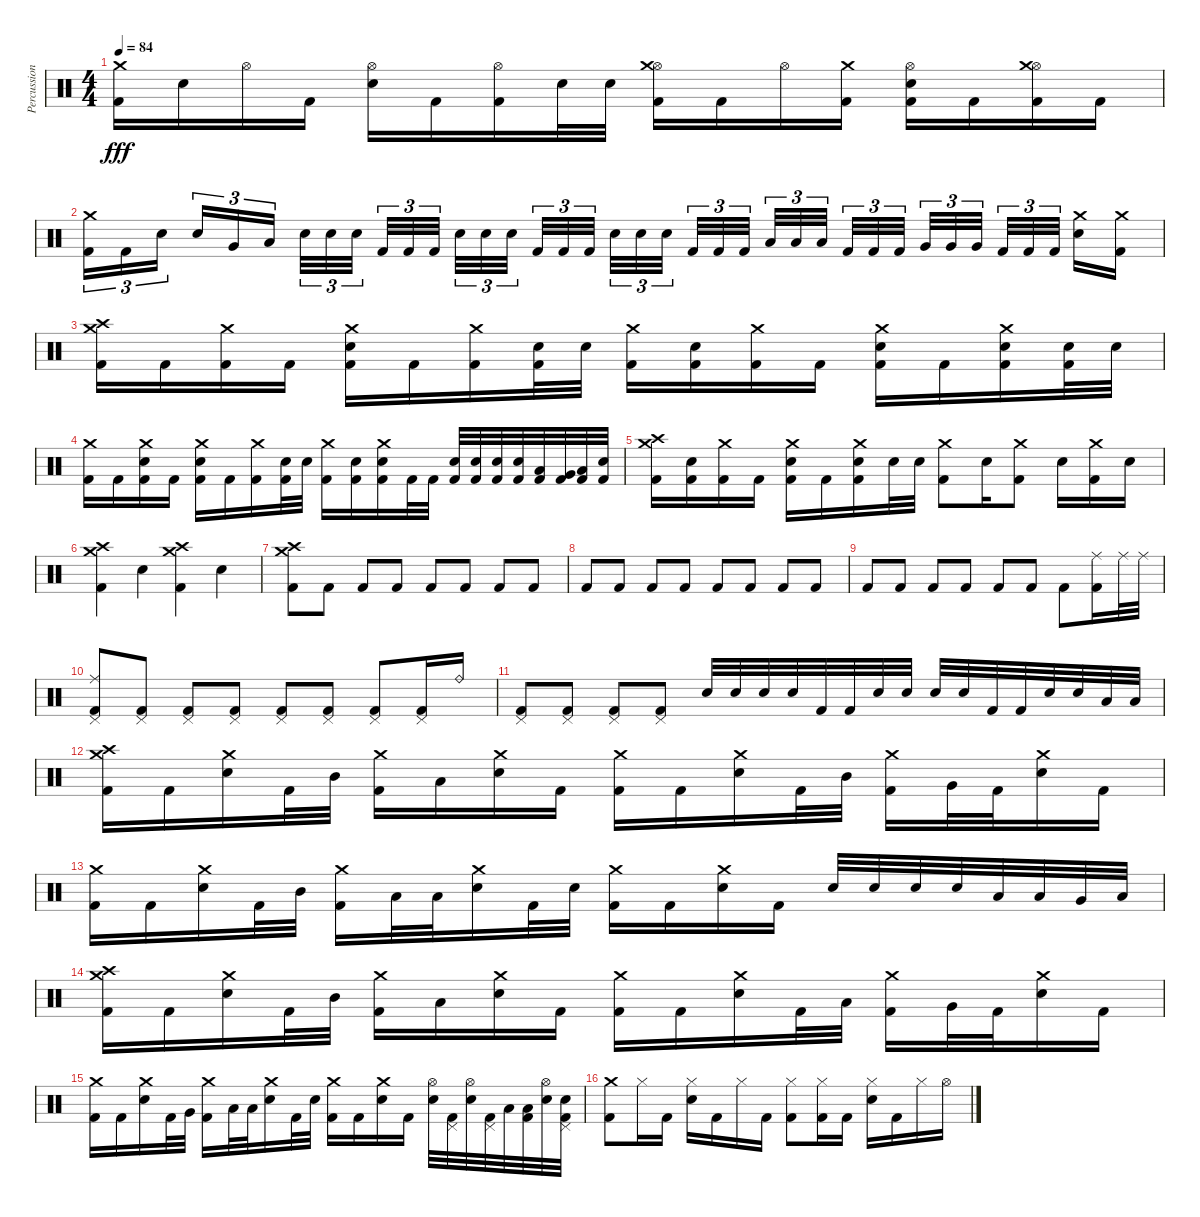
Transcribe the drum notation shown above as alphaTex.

\track ("Percussion" "Percussion") {instrument percussion}
\staff {score}
\articulation defaults
\ts (4 4)
\tempo 84
\clef neutral
\ks c
("Crash medium (hit)" "Kick (hit) 2").16{dy fff} "Electric Snare (hit)".16 "Hi-Hat (open)".16 "Kick (hit) 2".16 ("Hi-Hat (open)" "Electric Snare (hit)").16 "Kick (hit) 2".16 ("Hi-Hat (open)" "Kick (hit) 2").16 "Electric Snare (hit)".32 "Electric Snare (hit)".32 ("Hi-Hat (open)" "Crash medium (hit)" "Kick (hit) 2").16 "Kick (hit) 2".16 "Hi-Hat (open)".16 ("Crash medium (hit)" "Kick (hit) 2").16 ("Hi-Hat (open)" "Electric Snare (hit)" "Kick (hit) 2").16 "Kick (hit) 2".16 ("Hi-Hat (open)" "Crash medium (hit)" "Kick (hit) 2").16 "Kick (hit) 2".16 |
("Crash medium (hit)" "Kick (hit) 2").16{tu (3 2)} "Kick (hit) 2".16{tu (3 2)} "Electric Snare (hit)".16{tu (3 2) beam splitsecondary} "Electric Snare (hit)".16{tu (3 2)} "Very Low Tom (hit)".16{tu (3 2)} "Low Floor Tom (hit)".16{tu (3 2)} "Electric Snare (hit)".32{tu (3 2)} "Electric Snare (hit)".32{tu (3 2)} "Electric Snare (hit)".32{tu (3 2) beam splitsecondary} "Kick (hit) 2".32{tu (3 2)} "Kick (hit) 2".32{tu (3 2)} "Kick (hit) 2".32{tu (3 2) beam splitsecondary} "Electric Snare (hit)".32{tu (3 2)} "Electric Snare (hit)".32{tu (3 2)} "Electric Snare (hit)".32{tu (3 2) beam splitsecondary} "Kick (hit) 2".32{tu (3 2)} "Kick (hit) 2".32{tu (3 2)} "Kick (hit) 2".32{tu (3 2)} "Electric Snare (hit)".32{tu (3 2)} "Electric Snare (hit)".32{tu (3 2)} "Electric Snare (hit)".32{tu (3 2) beam splitsecondary} "Kick (hit) 2".32{tu (3 2)} "Kick (hit) 2".32{tu (3 2)} "Kick (hit) 2".32{tu (3 2) beam splitsecondary} "Low Tom (hit)".32{tu (3 2)} "Low Tom (hit)".32{tu (3 2)} "Low Tom (hit)".32{tu (3 2) beam splitsecondary} "Kick (hit) 2".32{tu (3 2)} "Kick (hit) 2".32{tu (3 2)} "Kick (hit) 2".32{tu (3 2)} "Very Low Tom (hit)".32{tu (3 2)} "Very Low Tom (hit)".32{tu (3 2)} "Very Low Tom (hit)".32{tu (3 2) beam splitsecondary} "Kick (hit) 2".32{tu (3 2)} "Kick (hit) 2".32{tu (3 2)} "Kick (hit) 2".32{tu (3 2) beam splitsecondary} ("Crash medium (hit)" "Electric Snare (hit)").16 ("Crash medium (hit)" "Kick (hit) 2").16 |
("Crash high (hit)" "Crash medium (hit)" "Kick (hit) 2").16 "Kick (hit) 2".16 ("Crash medium (hit)" "Kick (hit) 2").16 "Kick (hit) 2".16 ("Crash medium (hit)" "Electric Snare (hit)" "Kick (hit) 2").16 "Kick (hit) 2".16 ("Crash medium (hit)" "Kick (hit) 2").16 ("Electric Snare (hit)" "Kick (hit) 2").32 "Electric Snare (hit)".32 ("Crash medium (hit)" "Kick (hit) 2").16 ("Electric Snare (hit)" "Kick (hit) 2").16 ("Crash medium (hit)" "Kick (hit) 2").16 "Kick (hit) 2".16 ("Crash medium (hit)" "Electric Snare (hit)" "Kick (hit) 2").16 "Kick (hit) 2".16 ("Crash medium (hit)" "Electric Snare (hit)" "Kick (hit) 2").16 ("Electric Snare (hit)" "Kick (hit) 2").32 "Electric Snare (hit)".32 |
("Crash medium (hit)" "Kick (hit) 2").16 "Kick (hit) 2".16 ("Crash medium (hit)" "Electric Snare (hit)" "Kick (hit) 2").16 "Kick (hit) 2".16 ("Crash medium (hit)" "Electric Snare (hit)" "Kick (hit) 2").16 "Kick (hit) 2".16 ("Crash medium (hit)" "Kick (hit) 2").16 ("Electric Snare (hit)" "Kick (hit) 2").32 "Electric Snare (hit)".32 ("Crash medium (hit)" "Kick (hit) 2").16 ("Electric Snare (hit)" "Kick (hit) 2").16 ("Crash medium (hit)" "Electric Snare (hit)" "Kick (hit) 2").16 "Kick (hit) 2".32 "Kick (hit) 2".32 ("Electric Snare (hit)" "Kick (hit) 2").32 ("Electric Snare (hit)" "Kick (hit) 2").32 ("Electric Snare (hit)" "Kick (hit) 2").32 ("Electric Snare (hit)" "Kick (hit) 2").32 ("Low Tom (hit)" "Kick (hit) 2").32 ("Very Low Tom (hit)" "Kick (hit) 2").32 ("Low Floor Tom (hit)" "Kick (hit) 2").32 ("Electric Snare (hit)" "Kick (hit) 2").32 |
("Crash high (hit)" "Crash medium (hit)" "Kick (hit) 2").16 ("Electric Snare (hit)" "Kick (hit) 2").16 ("Crash medium (hit)" "Kick (hit) 2").16 "Kick (hit) 2".16 ("Crash medium (hit)" "Electric Snare (hit)" "Kick (hit) 2").16 "Kick (hit) 2".16 ("Crash medium (hit)" "Electric Snare (hit)" "Kick (hit) 2").16 "Electric Snare (hit)".32 "Electric Snare (hit)".32 ("Crash medium (hit)" "Kick (hit) 2").8 "Electric Snare (hit)".16 ("Crash medium (hit)" "Kick (hit) 2").8 "Electric Snare (hit)".16 ("Crash medium (hit)" "Kick (hit) 2").16 "Electric Snare (hit)".16 |
("Crash high (hit)" "Crash medium (hit)" "Kick (hit) 2").4 "Electric Snare (hit)".4 ("Crash high (hit)" "Crash medium (hit)" "Kick (hit) 2").4 "Electric Snare (hit)".4 |
("Crash high (hit)" "Crash medium (hit)" "Kick (hit) 2").8 "Kick (hit) 2".8 "Kick (hit) 2".8 "Kick (hit) 2".8 "Kick (hit) 2".8 "Kick (hit) 2".8 "Kick (hit) 2".8 "Kick (hit) 2".8 |
"Kick (hit) 2".8 "Kick (hit) 2".8 "Kick (hit) 2".8 "Kick (hit) 2".8 "Kick (hit) 2".8 "Kick (hit) 2".8 "Kick (hit) 2".8 "Kick (hit) 2".8 |
"Kick (hit) 2".8 "Kick (hit) 2".8 "Kick (hit) 2".8 "Kick (hit) 2".8 "Kick (hit) 2".8 "Kick (hit) 2".8 "Kick (hit) 2".8 ("Ride (middle)" "Kick (hit) 2").16 "Ride (middle)".32 "Ride (middle)".32 |
("Pedal Hi-Hat (hit)" "Ride (middle)" "Kick (hit) 2").8 ("Pedal Hi-Hat (hit)" "Kick (hit) 2").8 ("Pedal Hi-Hat (hit)" "Kick (hit) 2").8 ("Pedal Hi-Hat (hit)" "Kick (hit) 2").8 ("Pedal Hi-Hat (hit)" "Kick (hit) 2").8 ("Pedal Hi-Hat (hit)" "Kick (hit) 2").8 ("Pedal Hi-Hat (hit)" "Kick (hit) 2").8 ("Pedal Hi-Hat (hit)" "Kick (hit) 2").16 "Ride (bell)".16 |
("Pedal Hi-Hat (hit)" "Kick (hit) 2").8 ("Pedal Hi-Hat (hit)" "Kick (hit) 2").8 ("Pedal Hi-Hat (hit)" "Kick (hit) 2").8 ("Pedal Hi-Hat (hit)" "Kick (hit) 2").8 "Electric Snare (hit)".32 "Electric Snare (hit)".32 "Electric Snare (hit)".32 "Electric Snare (hit)".32 "Kick (hit) 2".32 "Kick (hit) 2".32 "Electric Snare (hit)".32 "Electric Snare (hit)".32 "Electric Snare (hit)".32 "Electric Snare (hit)".32 "Kick (hit) 2".32 "Kick (hit) 2".32 "Electric Snare (hit)".32 "Electric Snare (hit)".32 "Low Floor Tom (hit)".32 "Low Floor Tom (hit)".32 |
("Crash high (hit)" "Crash medium (hit)" "Kick (hit) 2").16 "Kick (hit) 2".16 ("Crash medium (hit)" "Electric Snare (hit)").16 "Kick (hit) 2".32 "Mid Tom (hit)".32 ("Crash medium (hit)" "Kick (hit) 2").16 "Low Tom (hit)".16 ("Crash medium (hit)" "Electric Snare (hit)").16 "Kick (hit) 2".16 ("Crash medium (hit)" "Kick (hit) 2").16 "Kick (hit) 2".16 ("Crash medium (hit)" "Electric Snare (hit)").16 "Kick (hit) 2".32 "Mid Tom (hit)".32 ("Crash medium (hit)" "Kick (hit) 2").16 "Very Low Tom (hit)".32 "Kick (hit) 2".32 ("Crash medium (hit)" "Electric Snare (hit)").16 "Kick (hit) 2".16 |
("Crash medium (hit)" "Kick (hit) 2").16 "Kick (hit) 2".16 ("Crash medium (hit)" "Electric Snare (hit)").16 "Kick (hit) 2".32 "Mid Tom (hit)".32 ("Crash medium (hit)" "Kick (hit) 2").16 "Low Tom (hit)".32 "Low Tom (hit)".32 ("Crash medium (hit)" "Electric Snare (hit)").16 "Kick (hit) 2".32 "Electric Snare (hit)".32 ("Crash medium (hit)" "Kick (hit) 2").16 "Kick (hit) 2".16 ("Crash medium (hit)" "Electric Snare (hit)").16 "Kick (hit) 2".16 "Electric Snare (hit)".32 "Electric Snare (hit)".32 "Electric Snare (hit)".32 "Electric Snare (hit)".32 "Low Tom (hit)".32 "Low Tom (hit)".32 "Very Low Tom (hit)".32 "Low Floor Tom (hit)".32 |
("Crash high (hit)" "Crash medium (hit)" "Kick (hit) 2").16 "Kick (hit) 2".16 ("Crash medium (hit)" "Electric Snare (hit)").16 "Kick (hit) 2".32 "Mid Tom (hit)".32 ("Crash medium (hit)" "Kick (hit) 2").16 "Low Tom (hit)".16 ("Crash medium (hit)" "Electric Snare (hit)").16 "Kick (hit) 2".16 ("Crash medium (hit)" "Kick (hit) 2").16 "Kick (hit) 2".16 ("Crash medium (hit)" "Electric Snare (hit)").16 "Kick (hit) 2".32 "Low Tom (hit)".32 ("Crash medium (hit)" "Kick (hit) 2").16 "Very Low Tom (hit)".32 "Kick (hit) 2".32 ("Crash medium (hit)" "Electric Snare (hit)").16 "Kick (hit) 2".16 |
("Crash medium (hit)" "Kick (hit) 2").16 "Kick (hit) 2".16 ("Crash medium (hit)" "Electric Snare (hit)").16 "Kick (hit) 2".32 "Very Low Tom (hit)".32 ("Crash medium (hit)" "Kick (hit) 2").16 "Low Floor Tom (hit)".32 "Low Floor Tom (hit)".32 ("Crash medium (hit)" "Electric Snare (hit)").16 "Kick (hit) 2".32 "Electric Snare (hit)".32 ("Crash medium (hit)" "Kick (hit) 2").16 "Kick (hit) 2".16 ("Crash medium (hit)" "Electric Snare (hit)").16 "Kick (hit) 2".16 ("Hi-Hat (open)" "Electric Snare (hit)").32 ("Pedal Hi-Hat (hit)" "Kick (hit) 2").32 ("Hi-Hat (open)" "Electric Snare (hit)").32 ("Pedal Hi-Hat (hit)" "Kick (hit) 2").32 "Low Tom (hit)".32 ("Low Tom (hit)" "Kick (hit) 2").32 ("Hi-Hat (open)" "Electric Snare (hit)").32 ("Pedal Hi-Hat (hit)" "Electric Snare (hit)" "Kick (hit) 2").32 |
("Crash medium (hit)" "Kick (hit) 2").8 "Hi-Hat (closed)".16 "Kick (hit) 2".16 ("Hi-Hat (closed)" "Electric Snare (hit)").16 "Kick (hit) 2".16 "Hi-Hat (closed)".16 "Kick (hit) 2".16 ("Hi-Hat (closed)" "Kick (hit) 2").8 ("Hi-Hat (closed)" "Kick (hit) 2").16 "Kick (hit) 2".16 ("Hi-Hat (closed)" "Electric Snare (hit)").16 "Kick (hit) 2".16 "Hi-Hat (closed)".16 "Hi-Hat (open)".16
